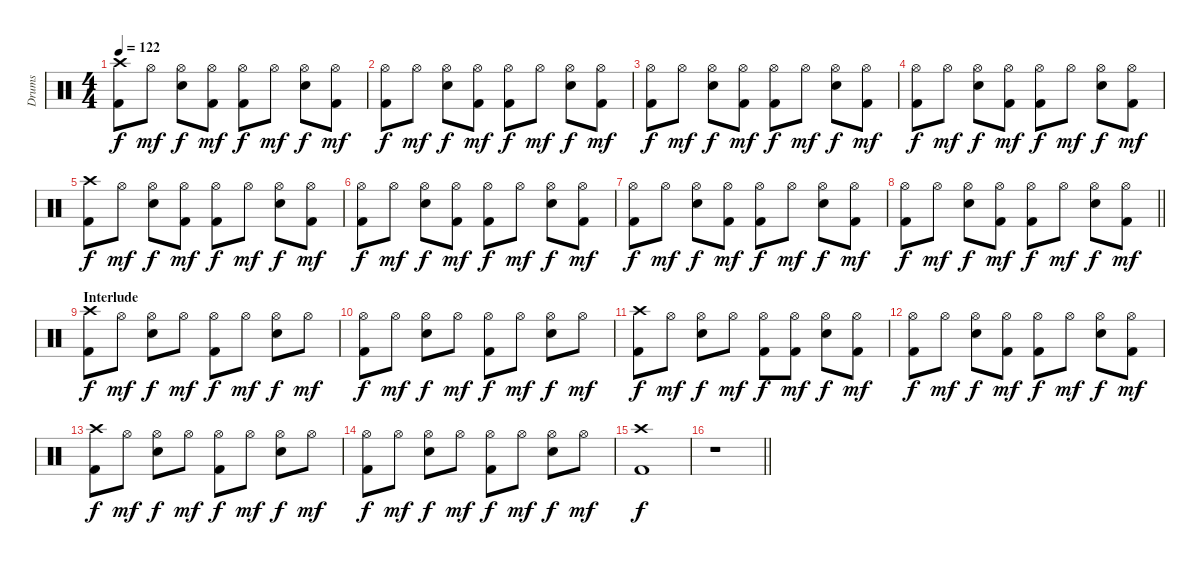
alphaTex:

\track ("Drums" "Drums") {instrument percussion}
\staff {score}
\articulation defaults
\ts (4 4)
\tempo 122
\clef neutral
\ks c
("Crash high (hit)" "Kick (hit) 2").8{dy f} "Hi-Hat (open)".8{dy mf} ("Hi-Hat (open)" "Snare (hit) 2").8{dy f} ("Hi-Hat (open)" "Kick (hit) 2").8{dy mf} ("Hi-Hat (open)" "Kick (hit) 2").8{dy f} "Hi-Hat (open)".8{dy mf} ("Hi-Hat (open)" "Snare (hit) 2").8{dy f} ("Hi-Hat (open)" "Kick (hit) 2").8{dy mf} |
("Hi-Hat (open)" "Kick (hit) 2").8{dy f} "Hi-Hat (open)".8{dy mf} ("Hi-Hat (open)" "Snare (hit) 2").8{dy f} ("Hi-Hat (open)" "Kick (hit) 2").8{dy mf} ("Hi-Hat (open)" "Kick (hit) 2").8{dy f} "Hi-Hat (open)".8{dy mf} ("Hi-Hat (open)" "Snare (hit) 2").8{dy f} ("Hi-Hat (open)" "Kick (hit) 2").8{dy mf} |
("Hi-Hat (open)" "Kick (hit) 2").8{dy f} "Hi-Hat (open)".8{dy mf} ("Hi-Hat (open)" "Snare (hit) 2").8{dy f} ("Hi-Hat (open)" "Kick (hit) 2").8{dy mf} ("Hi-Hat (open)" "Kick (hit) 2").8{dy f} "Hi-Hat (open)".8{dy mf} ("Hi-Hat (open)" "Snare (hit) 2").8{dy f} ("Hi-Hat (open)" "Kick (hit) 2").8{dy mf} |
("Hi-Hat (open)" "Kick (hit) 2").8{dy f} "Hi-Hat (open)".8{dy mf} ("Hi-Hat (open)" "Snare (hit) 2").8{dy f} ("Hi-Hat (open)" "Kick (hit) 2").8{dy mf} ("Hi-Hat (open)" "Kick (hit) 2").8{dy f} "Hi-Hat (open)".8{dy mf} ("Hi-Hat (open)" "Snare (hit) 2").8{dy f} ("Hi-Hat (open)" "Kick (hit) 2").8{dy mf} |
("Crash high (hit)" "Kick (hit) 2").8{dy f} "Hi-Hat (open)".8{dy mf} ("Hi-Hat (open)" "Snare (hit) 2").8{dy f} ("Hi-Hat (open)" "Kick (hit) 2").8{dy mf} ("Hi-Hat (open)" "Kick (hit) 2").8{dy f} "Hi-Hat (open)".8{dy mf} ("Hi-Hat (open)" "Snare (hit) 2").8{dy f} ("Hi-Hat (open)" "Kick (hit) 2").8{dy mf} |
("Hi-Hat (open)" "Kick (hit) 2").8{dy f} "Hi-Hat (open)".8{dy mf} ("Hi-Hat (open)" "Snare (hit) 2").8{dy f} ("Hi-Hat (open)" "Kick (hit) 2").8{dy mf} ("Hi-Hat (open)" "Kick (hit) 2").8{dy f} "Hi-Hat (open)".8{dy mf} ("Hi-Hat (open)" "Snare (hit) 2").8{dy f} ("Hi-Hat (open)" "Kick (hit) 2").8{dy mf} |
("Hi-Hat (open)" "Kick (hit) 2").8{dy f} "Hi-Hat (open)".8{dy mf} ("Hi-Hat (open)" "Snare (hit) 2").8{dy f} ("Hi-Hat (open)" "Kick (hit) 2").8{dy mf} ("Hi-Hat (open)" "Kick (hit) 2").8{dy f} "Hi-Hat (open)".8{dy mf} ("Hi-Hat (open)" "Snare (hit) 2").8{dy f} ("Hi-Hat (open)" "Kick (hit) 2").8{dy mf} |
\barLineRight lightlight
("Hi-Hat (open)" "Kick (hit) 2").8{dy f} "Hi-Hat (open)".8{dy mf} ("Hi-Hat (open)" "Snare (hit) 2").8{dy f} ("Hi-Hat (open)" "Kick (hit) 2").8{dy mf} ("Hi-Hat (open)" "Kick (hit) 2").8{dy f} "Hi-Hat (open)".8{dy mf} ("Hi-Hat (open)" "Snare (hit) 2").8{dy f} ("Hi-Hat (open)" "Kick (hit) 2").8{dy mf} |
\section ("" "Interlude")
("Crash high (hit)" "Kick (hit) 2").8{dy f} "Hi-Hat (open)".8{dy mf} ("Hi-Hat (open)" "Snare (hit) 2").8{dy f} "Hi-Hat (open)".8{dy mf} ("Hi-Hat (open)" "Kick (hit) 2").8{dy f} "Hi-Hat (open)".8{dy mf} ("Hi-Hat (open)" "Snare (hit) 2").8{dy f} "Hi-Hat (open)".8{dy mf} |
("Hi-Hat (open)" "Kick (hit) 2").8{dy f} "Hi-Hat (open)".8{dy mf} ("Hi-Hat (open)" "Snare (hit) 2").8{dy f} "Hi-Hat (open)".8{dy mf} ("Hi-Hat (open)" "Kick (hit) 2").8{dy f} "Hi-Hat (open)".8{dy mf} ("Hi-Hat (open)" "Snare (hit) 2").8{dy f} "Hi-Hat (open)".8{dy mf} |
("Crash high (hit)" "Kick (hit) 2").8{dy f} "Hi-Hat (open)".8{dy mf} ("Hi-Hat (open)" "Snare (hit) 2").8{dy f} "Hi-Hat (open)".8{dy mf} ("Hi-Hat (open)" "Kick (hit) 2").8{dy f} ("Hi-Hat (open)" "Kick (hit) 2").8{dy mf} ("Hi-Hat (open)" "Snare (hit) 2").8{dy f} ("Hi-Hat (open)" "Kick (hit) 2").8{dy mf} |
("Hi-Hat (open)" "Kick (hit) 2").8{dy f} "Hi-Hat (open)".8{dy mf} ("Hi-Hat (open)" "Snare (hit) 2").8{dy f} ("Hi-Hat (open)" "Kick (hit) 2").8{dy mf} ("Hi-Hat (open)" "Kick (hit) 2").8{dy f} "Hi-Hat (open)".8{dy mf} ("Hi-Hat (open)" "Snare (hit) 2").8{dy f} ("Hi-Hat (open)" "Kick (hit) 2").8{dy mf} |
("Crash high (hit)" "Kick (hit) 2").8{dy f} "Hi-Hat (open)".8{dy mf} ("Hi-Hat (open)" "Snare (hit) 2").8{dy f} "Hi-Hat (open)".8{dy mf} ("Hi-Hat (open)" "Kick (hit) 2").8{dy f} "Hi-Hat (open)".8{dy mf} ("Hi-Hat (open)" "Snare (hit) 2").8{dy f} "Hi-Hat (open)".8{dy mf} |
("Hi-Hat (open)" "Kick (hit) 2").8{dy f} "Hi-Hat (open)".8{dy mf} ("Hi-Hat (open)" "Snare (hit) 2").8{dy f} "Hi-Hat (open)".8{dy mf} ("Hi-Hat (open)" "Kick (hit) 2").8{dy f} "Hi-Hat (open)".8{dy mf} ("Hi-Hat (open)" "Snare (hit) 2").8{dy f} "Hi-Hat (open)".8{dy mf} |
("Crash high (hit)" "Kick (hit) 2").1{dy f} |
\barLineRight lightlight
r.1
